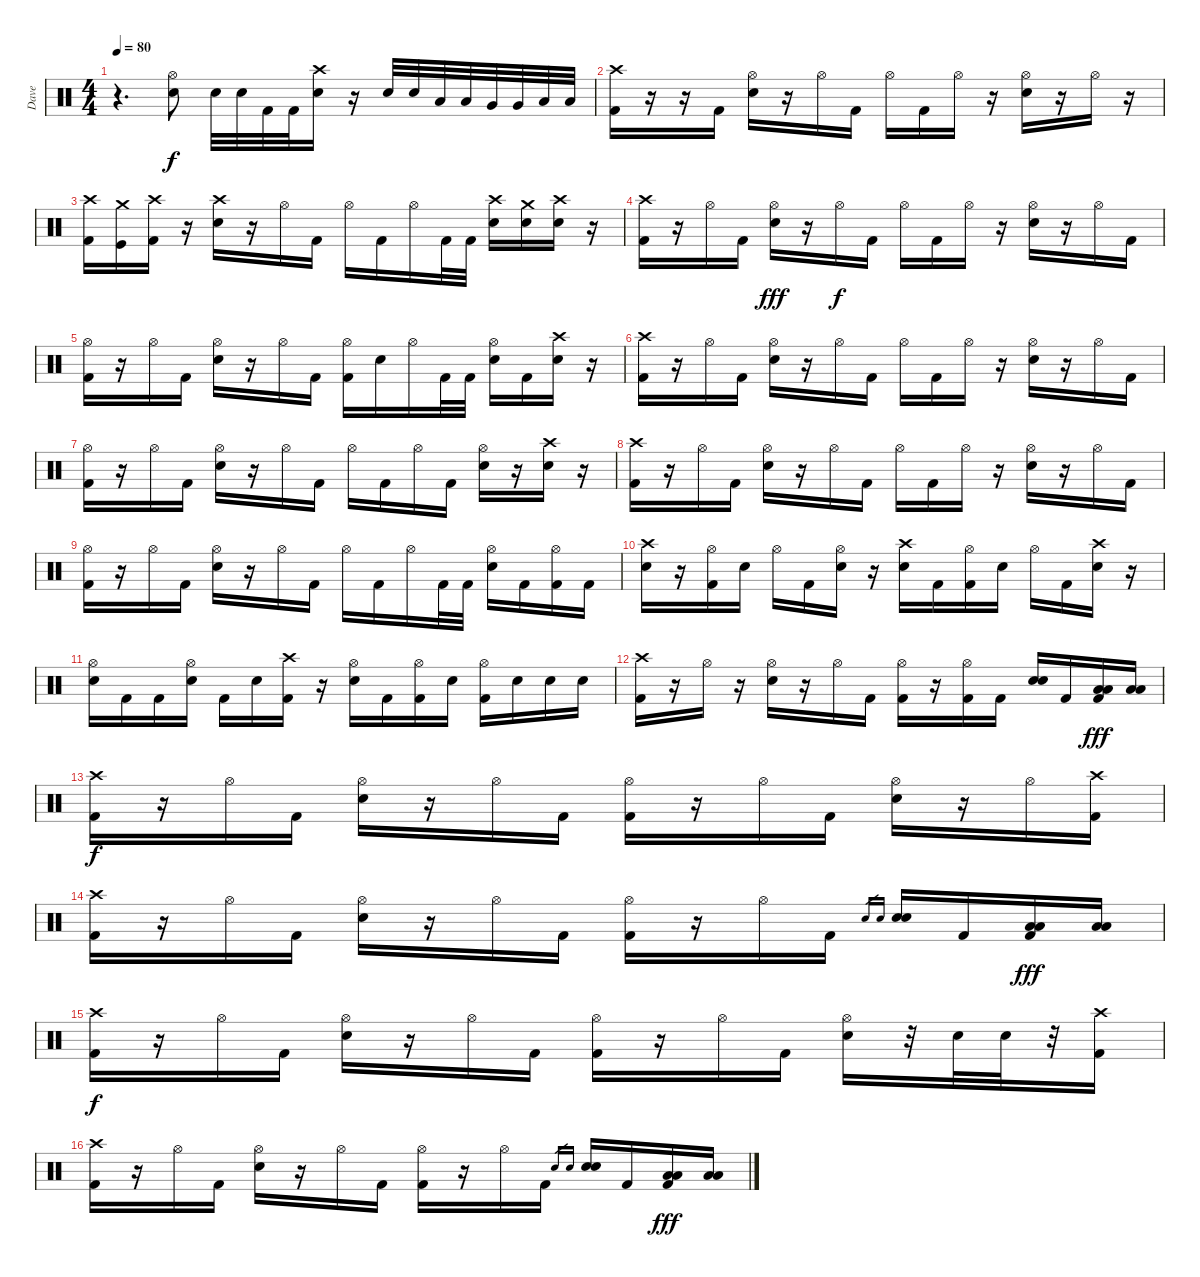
\track ("Dave" "Dave") {instrument percussion}
\staff {score}
\articulation defaults
\ts (4 4)
\tempo 80
\clef neutral
\ks c
r.4{d dy f} ("Hi-Hat (open)" "Electric Snare (hit)").8 "Electric Snare (hit)".32 "Electric Snare (hit)".32 "Kick (hit) 2".32 "Kick (hit) 2".32 ("Crash high (hit)" "Electric Snare (hit)").16 r.16 "Electric Snare (hit)".32 "Electric Snare (hit)".32 "Low Tom (hit)".32 "Low Tom (hit)".32 "Very Low Tom (hit)".32 "Very Low Tom (hit)".32 "Low Floor Tom (hit)".32 "Low Floor Tom (hit)".32 |
("Crash high (hit)" "Kick (hit) 2").16 r.16 r.16 "Kick (hit) 2".16 ("Hi-Hat (open)" "Electric Snare (hit)").16 r.16 "Hi-Hat (open)".16 "Kick (hit) 2".16 "Hi-Hat (open)".16 "Kick (hit) 2".16 "Hi-Hat (open)".16 r.16 ("Hi-Hat (open)" "Electric Snare (hit)").16 r.16 "Hi-Hat (open)".16 r.16 |
("Crash high (hit)" "Kick (hit) 2").16 ("Crash medium (hit)" "Kick (hit)").16 ("Crash high (hit)" "Kick (hit) 2").16 r.16 ("Crash high (hit)" "Electric Snare (hit)").16 r.16 "Hi-Hat (open)".16 "Kick (hit) 2".16 "Hi-Hat (open)".16 "Kick (hit) 2".16 "Hi-Hat (open)".16 "Kick (hit) 2".32 "Kick (hit) 2".32 ("Crash high (hit)" "Electric Snare (hit)").16 ("Crash medium (hit)" "Electric Snare (hit)").16 ("Crash high (hit)" "Electric Snare (hit)").16 r.16 |
("Crash high (hit)" "Kick (hit) 2").16 r.16 "Hi-Hat (open)".16 "Kick (hit) 2".16 ("Hi-Hat (open)" "Electric Snare (hit)").16{dy fff} r.16 "Hi-Hat (open)".16{dy f} "Kick (hit) 2".16 "Hi-Hat (open)".16 "Kick (hit) 2".16 "Hi-Hat (open)".16 r.16 ("Hi-Hat (open)" "Electric Snare (hit)").16 r.16 "Hi-Hat (open)".16 "Kick (hit) 2".16 |
("Hi-Hat (open)" "Kick (hit) 2").16 r.16 "Hi-Hat (open)".16 "Kick (hit) 2".16 ("Hi-Hat (open)" "Electric Snare (hit)").16 r.16 "Hi-Hat (open)".16 "Kick (hit) 2".16 ("Hi-Hat (open)" "Kick (hit) 2").16 "Electric Snare (hit)".16 "Hi-Hat (open)".16 "Kick (hit) 2".32 "Kick (hit) 2".32 ("Hi-Hat (open)" "Electric Snare (hit)").16 "Kick (hit) 2".16 ("Crash high (hit)" "Electric Snare (hit)").16 r.16 |
("Crash high (hit)" "Kick (hit) 2").16 r.16 "Hi-Hat (open)".16 "Kick (hit) 2".16 ("Hi-Hat (open)" "Electric Snare (hit)").16 r.16 "Hi-Hat (open)".16 "Kick (hit) 2".16 "Hi-Hat (open)".16 "Kick (hit) 2".16 "Hi-Hat (open)".16 r.16 ("Hi-Hat (open)" "Electric Snare (hit)").16 r.16 "Hi-Hat (open)".16 "Kick (hit) 2".16 |
("Hi-Hat (open)" "Kick (hit) 2").16 r.16 "Hi-Hat (open)".16 "Kick (hit) 2".16 ("Hi-Hat (open)" "Electric Snare (hit)").16 r.16 "Hi-Hat (open)".16 "Kick (hit) 2".16 "Hi-Hat (open)".16 "Kick (hit) 2".16 "Hi-Hat (open)".16 "Kick (hit) 2".16 ("Hi-Hat (open)" "Electric Snare (hit)").16 r.16 ("Crash high (hit)" "Electric Snare (hit)").16 r.16 |
("Crash high (hit)" "Kick (hit) 2").16 r.16 "Hi-Hat (open)".16 "Kick (hit) 2".16 ("Hi-Hat (open)" "Electric Snare (hit)").16 r.16 "Hi-Hat (open)".16 "Kick (hit) 2".16 "Hi-Hat (open)".16 "Kick (hit) 2".16 "Hi-Hat (open)".16 r.16 ("Hi-Hat (open)" "Electric Snare (hit)").16 r.16 "Hi-Hat (open)".16 "Kick (hit) 2".16 |
("Hi-Hat (open)" "Kick (hit) 2").16 r.16 "Hi-Hat (open)".16 "Kick (hit) 2".16 ("Hi-Hat (open)" "Electric Snare (hit)").16 r.16 "Hi-Hat (open)".16 "Kick (hit) 2".16 "Hi-Hat (open)".16 "Kick (hit) 2".16 "Hi-Hat (open)".16 "Kick (hit) 2".32 "Kick (hit) 2".32 ("Hi-Hat (open)" "Electric Snare (hit)").16 "Kick (hit) 2".16 ("Hi-Hat (open)" "Kick (hit) 2").16 "Kick (hit) 2".16 |
("Crash high (hit)" "Electric Snare (hit)").16 r.16 ("Hi-Hat (open)" "Kick (hit) 2").16 "Electric Snare (hit)".16 "Hi-Hat (open)".16 "Kick (hit) 2".16 ("Hi-Hat (open)" "Electric Snare (hit)").16 r.16 ("Crash high (hit)" "Electric Snare (hit)").16 "Kick (hit) 2".16 ("Hi-Hat (open)" "Kick (hit) 2").16 "Electric Snare (hit)".16 "Hi-Hat (open)".16 "Kick (hit) 2".16 ("Crash high (hit)" "Electric Snare (hit)").16 r.16 |
("Hi-Hat (open)" "Electric Snare (hit)").16 "Kick (hit) 2".16 "Kick (hit) 2".16 ("Hi-Hat (open)" "Electric Snare (hit)").16 "Kick (hit) 2".16 "Electric Snare (hit)".16 ("Crash high (hit)" "Kick (hit) 2").16 r.16 ("Hi-Hat (open)" "Electric Snare (hit)").16 "Kick (hit) 2".16 ("Hi-Hat (open)" "Kick (hit) 2").16 "Electric Snare (hit)".16 ("Hi-Hat (open)" "Kick (hit) 2").16 "Electric Snare (hit)".16 "Electric Snare (hit)".16 "Electric Snare (hit)".16 |
("Crash high (hit)" "Kick (hit) 2").16 r.16 "Hi-Hat (open)".16 r.16 ("Hi-Hat (open)" "Electric Snare (hit)").16 r.16 "Hi-Hat (open)".16 "Kick (hit) 2".16 ("Hi-Hat (open)" "Kick (hit) 2").16 r.16 ("Hi-Hat (open)" "Kick (hit) 2").16 "Kick (hit) 2".16 ("Electric Snare (hit)" "Electric Snare (hit)").16 "Kick (hit) 2".16 ("Low Tom (hit)" "Low Floor Tom (hit)" "Kick (hit) 2").16{dy fff} ("Low Tom (hit)" "Low Floor Tom (hit)").16 |
("Crash high (hit)" "Kick (hit) 2").16{dy f} r.16 "Hi-Hat (open)".16 "Kick (hit) 2".16 ("Hi-Hat (open)" "Electric Snare (hit)").16 r.16 "Hi-Hat (open)".16 "Kick (hit) 2".16 ("Hi-Hat (open)" "Kick (hit) 2").16 r.16 "Hi-Hat (open)".16 "Kick (hit) 2".16 ("Hi-Hat (open)" "Electric Snare (hit)").16 r.16 "Hi-Hat (open)".16 ("Crash high (hit)" "Kick (hit) 2").16 |
("Crash high (hit)" "Kick (hit) 2").16 r.16 "Hi-Hat (open)".16 "Kick (hit) 2".16 ("Hi-Hat (open)" "Electric Snare (hit)").16 r.16 "Hi-Hat (open)".16 "Kick (hit) 2".16 ("Hi-Hat (open)" "Kick (hit) 2").16 r.16 "Hi-Hat (open)".16 "Kick (hit) 2".16 "Electric Snare (hit)".16{gr} "Electric Snare (hit)".16{gr} ("Electric Snare (hit)" "Electric Snare (hit)").16 "Kick (hit) 2".16 ("Low Tom (hit)" "Low Floor Tom (hit)" "Kick (hit) 2").16{dy fff} ("Low Tom (hit)" "Low Floor Tom (hit)").16 |
("Crash high (hit)" "Kick (hit) 2").16{dy f} r.16 "Hi-Hat (open)".16 "Kick (hit) 2".16 ("Hi-Hat (open)" "Electric Snare (hit)").16 r.16 "Hi-Hat (open)".16 "Kick (hit) 2".16 ("Hi-Hat (open)" "Kick (hit) 2").16 r.16 "Hi-Hat (open)".16 "Kick (hit) 2".16 ("Hi-Hat (open)" "Electric Snare (hit)").16 r.32 "Electric Snare (hit)".32 "Electric Snare (hit)".32 r.32 ("Crash high (hit)" "Kick (hit) 2").16 |
("Crash high (hit)" "Kick (hit) 2").16 r.16 "Hi-Hat (open)".16 "Kick (hit) 2".16 ("Hi-Hat (open)" "Electric Snare (hit)").16 r.16 "Hi-Hat (open)".16 "Kick (hit) 2".16 ("Hi-Hat (open)" "Kick (hit) 2").16 r.16 "Hi-Hat (open)".16 "Kick (hit) 2".16 "Electric Snare (hit)".16{gr} "Electric Snare (hit)".16{gr} ("Electric Snare (hit)" "Electric Snare (hit)").16 "Kick (hit) 2".16 ("Low Tom (hit)" "Low Floor Tom (hit)" "Kick (hit) 2").16{dy fff} ("Low Tom (hit)" "Low Floor Tom (hit)").16
